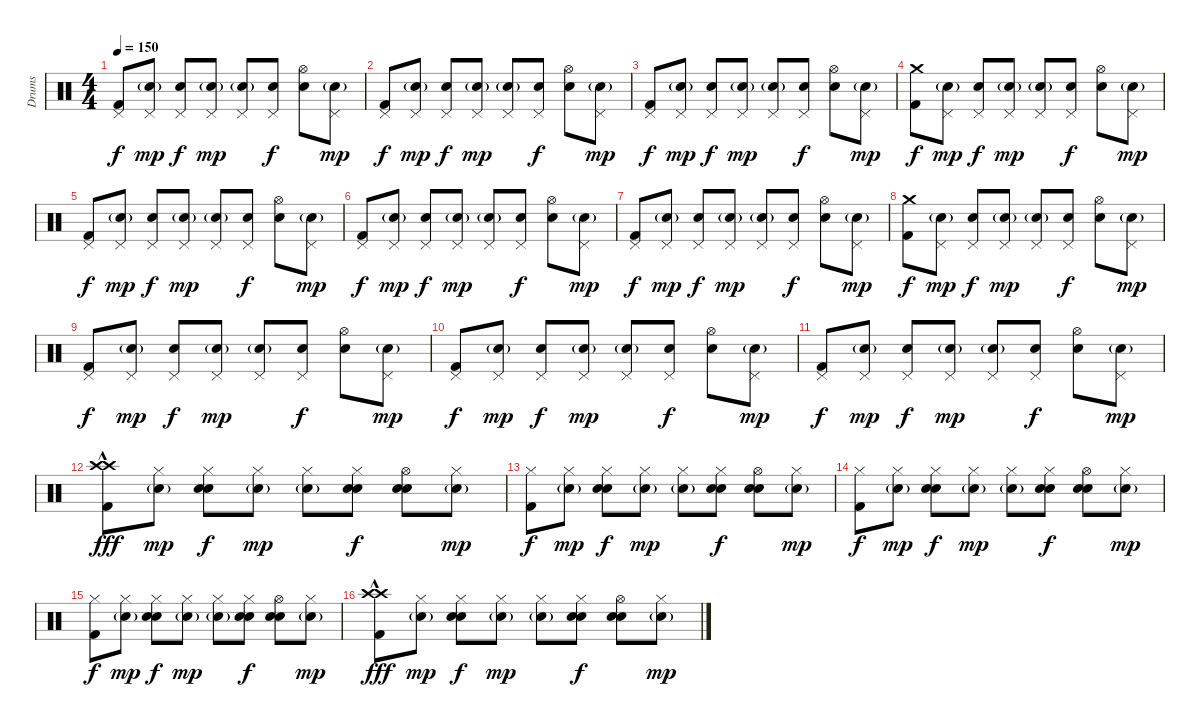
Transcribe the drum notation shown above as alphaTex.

\track ("Drums" "Drums") {instrument percussion}
\staff {score}
\articulation defaults
\ts (4 4)
\tempo 150
\clef neutral
\ks c
("Pedal Hi-Hat (hit)" "Kick (hit) 2").8{dy f} ("Pedal Hi-Hat (hit)" "Electric Snare (hit)"{g}).8{dy mp} ("Pedal Hi-Hat (hit)" "Electric Snare (hit)").8{dy f} ("Pedal Hi-Hat (hit)" "Electric Snare (hit)"{g}).8{dy mp} ("Pedal Hi-Hat (hit)" "Electric Snare (hit)"{g}).8 ("Pedal Hi-Hat (hit)" "Electric Snare (hit)").8{dy f} ("Hi-Hat (open)" "Electric Snare (hit)").8 ("Pedal Hi-Hat (hit)" "Electric Snare (hit)"{g}).8{dy mp} |
("Pedal Hi-Hat (hit)" "Kick (hit) 2").8{dy f} ("Pedal Hi-Hat (hit)" "Electric Snare (hit)"{g}).8{dy mp} ("Pedal Hi-Hat (hit)" "Electric Snare (hit)").8{dy f} ("Pedal Hi-Hat (hit)" "Electric Snare (hit)"{g}).8{dy mp} ("Pedal Hi-Hat (hit)" "Electric Snare (hit)"{g}).8 ("Pedal Hi-Hat (hit)" "Electric Snare (hit)").8{dy f} ("Hi-Hat (open)" "Electric Snare (hit)").8 ("Pedal Hi-Hat (hit)" "Electric Snare (hit)"{g}).8{dy mp} |
("Pedal Hi-Hat (hit)" "Kick (hit) 2").8{dy f} ("Pedal Hi-Hat (hit)" "Electric Snare (hit)"{g}).8{dy mp} ("Pedal Hi-Hat (hit)" "Electric Snare (hit)").8{dy f} ("Pedal Hi-Hat (hit)" "Electric Snare (hit)"{g}).8{dy mp} ("Pedal Hi-Hat (hit)" "Electric Snare (hit)"{g}).8 ("Pedal Hi-Hat (hit)" "Electric Snare (hit)").8{dy f} ("Hi-Hat (open)" "Electric Snare (hit)").8 ("Pedal Hi-Hat (hit)" "Electric Snare (hit)"{g}).8{dy mp} |
("Crash medium (hit)" "Kick (hit) 2").8{dy f} ("Pedal Hi-Hat (hit)" "Electric Snare (hit)"{g}).8{dy mp} ("Pedal Hi-Hat (hit)" "Electric Snare (hit)").8{dy f} ("Pedal Hi-Hat (hit)" "Electric Snare (hit)"{g}).8{dy mp} ("Pedal Hi-Hat (hit)" "Electric Snare (hit)"{g}).8 ("Pedal Hi-Hat (hit)" "Electric Snare (hit)").8{dy f} ("Hi-Hat (open)" "Electric Snare (hit)").8 ("Pedal Hi-Hat (hit)" "Electric Snare (hit)"{g}).8{dy mp} |
("Pedal Hi-Hat (hit)" "Kick (hit) 2").8{dy f} ("Pedal Hi-Hat (hit)" "Electric Snare (hit)"{g}).8{dy mp} ("Pedal Hi-Hat (hit)" "Electric Snare (hit)").8{dy f} ("Pedal Hi-Hat (hit)" "Electric Snare (hit)"{g}).8{dy mp} ("Pedal Hi-Hat (hit)" "Electric Snare (hit)"{g}).8 ("Pedal Hi-Hat (hit)" "Electric Snare (hit)").8{dy f} ("Hi-Hat (open)" "Electric Snare (hit)").8 ("Pedal Hi-Hat (hit)" "Electric Snare (hit)"{g}).8{dy mp} |
("Pedal Hi-Hat (hit)" "Kick (hit) 2").8{dy f} ("Pedal Hi-Hat (hit)" "Electric Snare (hit)"{g}).8{dy mp} ("Pedal Hi-Hat (hit)" "Electric Snare (hit)").8{dy f} ("Pedal Hi-Hat (hit)" "Electric Snare (hit)"{g}).8{dy mp} ("Pedal Hi-Hat (hit)" "Electric Snare (hit)"{g}).8 ("Pedal Hi-Hat (hit)" "Electric Snare (hit)").8{dy f} ("Hi-Hat (open)" "Electric Snare (hit)").8 ("Pedal Hi-Hat (hit)" "Electric Snare (hit)"{g}).8{dy mp} |
("Pedal Hi-Hat (hit)" "Kick (hit) 2").8{dy f} ("Pedal Hi-Hat (hit)" "Electric Snare (hit)"{g}).8{dy mp} ("Pedal Hi-Hat (hit)" "Electric Snare (hit)").8{dy f} ("Pedal Hi-Hat (hit)" "Electric Snare (hit)"{g}).8{dy mp} ("Pedal Hi-Hat (hit)" "Electric Snare (hit)"{g}).8 ("Pedal Hi-Hat (hit)" "Electric Snare (hit)").8{dy f} ("Hi-Hat (open)" "Electric Snare (hit)").8 ("Pedal Hi-Hat (hit)" "Electric Snare (hit)"{g}).8{dy mp} |
("Crash medium (hit)" "Kick (hit) 2").8{dy f} ("Pedal Hi-Hat (hit)" "Electric Snare (hit)"{g}).8{dy mp} ("Pedal Hi-Hat (hit)" "Electric Snare (hit)").8{dy f} ("Pedal Hi-Hat (hit)" "Electric Snare (hit)"{g}).8{dy mp} ("Pedal Hi-Hat (hit)" "Electric Snare (hit)"{g}).8 ("Pedal Hi-Hat (hit)" "Electric Snare (hit)").8{dy f} ("Hi-Hat (open)" "Electric Snare (hit)").8 ("Pedal Hi-Hat (hit)" "Electric Snare (hit)"{g}).8{dy mp} |
("Pedal Hi-Hat (hit)" "Kick (hit) 2").8{dy f} ("Pedal Hi-Hat (hit)" "Electric Snare (hit)"{g}).8{dy mp} ("Pedal Hi-Hat (hit)" "Electric Snare (hit)").8{dy f} ("Pedal Hi-Hat (hit)" "Electric Snare (hit)"{g}).8{dy mp} ("Pedal Hi-Hat (hit)" "Electric Snare (hit)"{g}).8 ("Pedal Hi-Hat (hit)" "Electric Snare (hit)").8{dy f} ("Hi-Hat (open)" "Electric Snare (hit)").8 ("Pedal Hi-Hat (hit)" "Electric Snare (hit)"{g}).8{dy mp} |
("Pedal Hi-Hat (hit)" "Kick (hit) 2").8{dy f} ("Pedal Hi-Hat (hit)" "Electric Snare (hit)"{g}).8{dy mp} ("Pedal Hi-Hat (hit)" "Electric Snare (hit)").8{dy f} ("Pedal Hi-Hat (hit)" "Electric Snare (hit)"{g}).8{dy mp} ("Pedal Hi-Hat (hit)" "Electric Snare (hit)"{g}).8 ("Pedal Hi-Hat (hit)" "Electric Snare (hit)").8{dy f} ("Hi-Hat (open)" "Electric Snare (hit)").8 ("Pedal Hi-Hat (hit)" "Electric Snare (hit)"{g}).8{dy mp} |
("Pedal Hi-Hat (hit)" "Kick (hit) 2").8{dy f} ("Pedal Hi-Hat (hit)" "Electric Snare (hit)"{g}).8{dy mp} ("Pedal Hi-Hat (hit)" "Electric Snare (hit)").8{dy f} ("Pedal Hi-Hat (hit)" "Electric Snare (hit)"{g}).8{dy mp} ("Pedal Hi-Hat (hit)" "Electric Snare (hit)"{g}).8 ("Pedal Hi-Hat (hit)" "Electric Snare (hit)").8{dy f} ("Hi-Hat (open)" "Electric Snare (hit)").8 ("Pedal Hi-Hat (hit)" "Electric Snare (hit)"{g}).8{dy mp} |
("Crash high (hit)"{hac} "Crash high (hit)"{hac} "Kick (hit) 2").8{dy fff} ("Hi-Hat (closed)" "Electric Snare (hit)"{g}).8{dy mp} ("Hi-Hat (closed)" "Electric Snare (hit)" "Hand Clap (hit)").8{dy f} ("Hi-Hat (closed)" "Electric Snare (hit)"{g}).8{dy mp} ("Hi-Hat (closed)" "Electric Snare (hit)"{g}).8 ("Hi-Hat (closed)" "Electric Snare (hit)" "Hand Clap (hit)").8{dy f} ("Hi-Hat (open)" "Electric Snare (hit)" "Hand Clap (hit)").8 ("Hi-Hat (closed)" "Electric Snare (hit)"{g}).8{dy mp} |
("Hi-Hat (closed)" "Kick (hit) 2").8{dy f} ("Hi-Hat (closed)" "Electric Snare (hit)"{g}).8{dy mp} ("Hi-Hat (closed)" "Electric Snare (hit)" "Hand Clap (hit)").8{dy f} ("Hi-Hat (closed)" "Electric Snare (hit)"{g}).8{dy mp} ("Hi-Hat (closed)" "Electric Snare (hit)"{g}).8 ("Hi-Hat (closed)" "Electric Snare (hit)" "Hand Clap (hit)").8{dy f} ("Hi-Hat (open)" "Electric Snare (hit)" "Hand Clap (hit)").8 ("Hi-Hat (closed)" "Electric Snare (hit)"{g}).8{dy mp} |
("Hi-Hat (closed)" "Kick (hit) 2").8{dy f} ("Hi-Hat (closed)" "Electric Snare (hit)"{g}).8{dy mp} ("Hi-Hat (closed)" "Electric Snare (hit)" "Hand Clap (hit)").8{dy f} ("Hi-Hat (closed)" "Electric Snare (hit)"{g}).8{dy mp} ("Hi-Hat (closed)" "Electric Snare (hit)"{g}).8 ("Hi-Hat (closed)" "Electric Snare (hit)" "Hand Clap (hit)").8{dy f} ("Hi-Hat (open)" "Electric Snare (hit)" "Hand Clap (hit)").8 ("Hi-Hat (closed)" "Electric Snare (hit)"{g}).8{dy mp} |
("Hi-Hat (closed)" "Kick (hit) 2").8{dy f} ("Hi-Hat (closed)" "Electric Snare (hit)"{g}).8{dy mp} ("Hi-Hat (closed)" "Electric Snare (hit)" "Hand Clap (hit)").8{dy f} ("Hi-Hat (closed)" "Electric Snare (hit)"{g}).8{dy mp} ("Hi-Hat (closed)" "Electric Snare (hit)"{g}).8 ("Hi-Hat (closed)" "Electric Snare (hit)" "Hand Clap (hit)").8{dy f} ("Hi-Hat (open)" "Electric Snare (hit)" "Hand Clap (hit)").8 ("Hi-Hat (closed)" "Electric Snare (hit)"{g}).8{dy mp} |
("Crash high (hit)"{hac} "Crash high (hit)"{hac} "Kick (hit) 2").8{dy fff} ("Hi-Hat (closed)" "Electric Snare (hit)"{g}).8{dy mp} ("Hi-Hat (closed)" "Electric Snare (hit)" "Hand Clap (hit)").8{dy f} ("Hi-Hat (closed)" "Electric Snare (hit)"{g}).8{dy mp} ("Hi-Hat (closed)" "Electric Snare (hit)"{g}).8 ("Hi-Hat (closed)" "Electric Snare (hit)" "Hand Clap (hit)").8{dy f} ("Hi-Hat (open)" "Electric Snare (hit)" "Hand Clap (hit)").8 ("Hi-Hat (closed)" "Electric Snare (hit)"{g}).8{dy mp}
